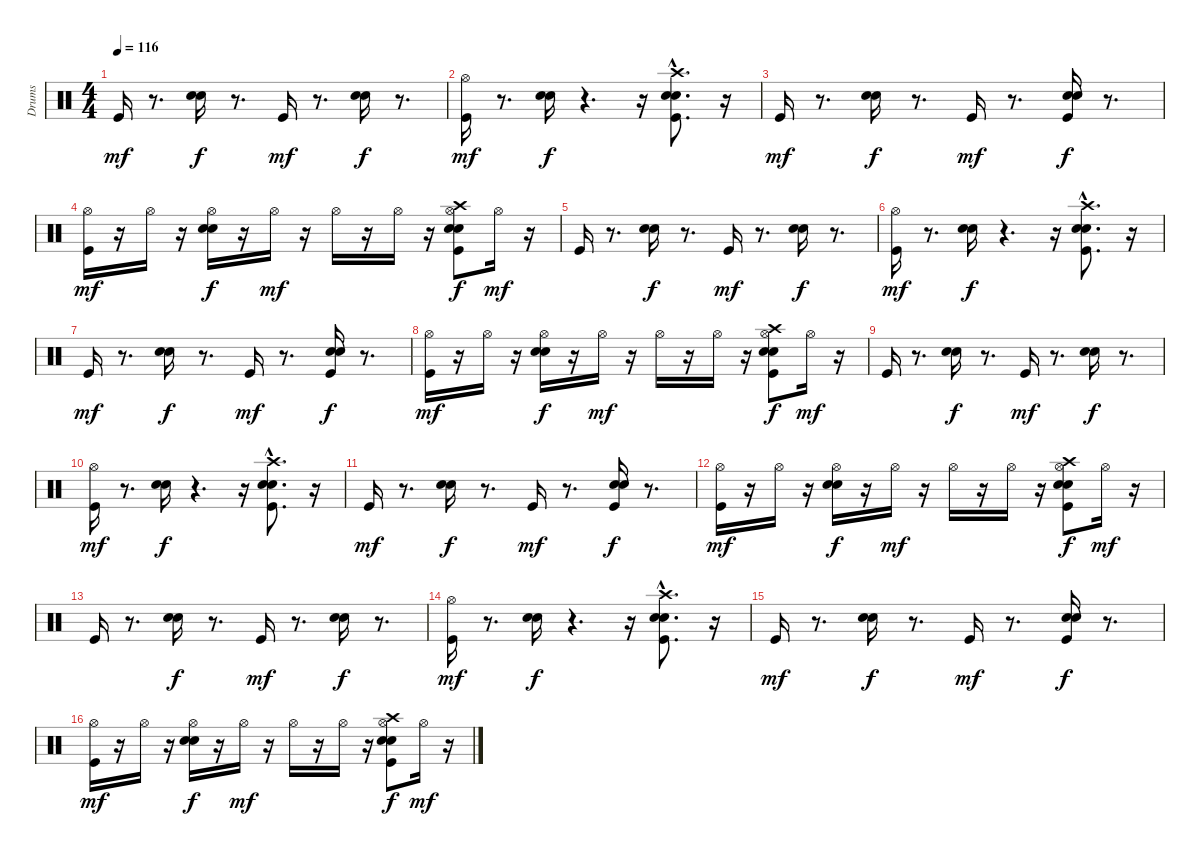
\track ("Drums" "Drums") {instrument percussion}
\staff {score}
\articulation defaults
\ts (4 4)
\tempo 116
\clef neutral
\ks c "Kick (hit)".16{dy mf}
r.8{d} ("Electric Snare (hit)" "Snare (hit) 2").16{dy f} r.8{d} "Kick (hit)".16{dy mf} r.8{d} ("Electric Snare (hit)" "Snare (hit) 2").16{dy f} r.8{d} |
("Hi-Hat (open)" "Kick (hit)").16{dy mf} r.8{d} ("Electric Snare (hit)" "Snare (hit) 2").16{dy f} r.4{d} r.16 ("Crash high (hit)"{hac} "Electric Snare (hit)" "Snare (hit) 2" "Kick (hit)").8{d} r.16 |
"Kick (hit)".16{dy mf} r.8{d} ("Electric Snare (hit)" "Snare (hit) 2").16{dy f} r.8{d} "Kick (hit)".16{dy mf} r.8{d} ("Electric Snare (hit)" "Snare (hit) 2" "Kick (hit)").16{dy f} r.8{d} |
("Hi-Hat (open)" "Kick (hit)").16{dy mf} r.16 "Hi-Hat (open)".16 r.16 ("Hi-Hat (open)" "Electric Snare (hit)" "Snare (hit) 2").16{dy f} r.16 "Hi-Hat (open)".16{dy mf} r.16 "Hi-Hat (open)".16 r.16 "Hi-Hat (open)".16 r.16 ("Hi-Hat (open)" "Crash high (hit)" "Electric Snare (hit)" "Snare (hit) 2" "Kick (hit)").8{dy f} "Hi-Hat (open)".16{dy mf} r.16 |
"Kick (hit)".16 r.8{d} ("Electric Snare (hit)" "Snare (hit) 2").16{dy f} r.8{d} "Kick (hit)".16{dy mf} r.8{d} ("Electric Snare (hit)" "Snare (hit) 2").16{dy f} r.8{d} |
("Hi-Hat (open)" "Kick (hit)").16{dy mf} r.8{d} ("Electric Snare (hit)" "Snare (hit) 2").16{dy f} r.4{d} r.16 ("Crash high (hit)"{hac} "Electric Snare (hit)" "Snare (hit) 2" "Kick (hit)").8{d} r.16 |
"Kick (hit)".16{dy mf} r.8{d} ("Electric Snare (hit)" "Snare (hit) 2").16{dy f} r.8{d} "Kick (hit)".16{dy mf} r.8{d} ("Electric Snare (hit)" "Snare (hit) 2" "Kick (hit)").16{dy f} r.8{d} |
("Hi-Hat (open)" "Kick (hit)").16{dy mf} r.16 "Hi-Hat (open)".16 r.16 ("Hi-Hat (open)" "Electric Snare (hit)" "Snare (hit) 2").16{dy f} r.16 "Hi-Hat (open)".16{dy mf} r.16 "Hi-Hat (open)".16 r.16 "Hi-Hat (open)".16 r.16 ("Hi-Hat (open)" "Crash high (hit)" "Electric Snare (hit)" "Snare (hit) 2" "Kick (hit)").8{dy f} "Hi-Hat (open)".16{dy mf} r.16 |
"Kick (hit)".16 r.8{d} ("Electric Snare (hit)" "Snare (hit) 2").16{dy f} r.8{d} "Kick (hit)".16{dy mf} r.8{d} ("Electric Snare (hit)" "Snare (hit) 2").16{dy f} r.8{d} |
("Hi-Hat (open)" "Kick (hit)").16{dy mf} r.8{d} ("Electric Snare (hit)" "Snare (hit) 2").16{dy f} r.4{d} r.16 ("Crash high (hit)"{hac} "Electric Snare (hit)" "Snare (hit) 2" "Kick (hit)").8{d} r.16 |
"Kick (hit)".16{dy mf} r.8{d} ("Electric Snare (hit)" "Snare (hit) 2").16{dy f} r.8{d} "Kick (hit)".16{dy mf} r.8{d} ("Electric Snare (hit)" "Snare (hit) 2" "Kick (hit)").16{dy f} r.8{d} |
("Hi-Hat (open)" "Kick (hit)").16{dy mf} r.16 "Hi-Hat (open)".16 r.16 ("Hi-Hat (open)" "Electric Snare (hit)" "Snare (hit) 2").16{dy f} r.16 "Hi-Hat (open)".16{dy mf} r.16 "Hi-Hat (open)".16 r.16 "Hi-Hat (open)".16 r.16 ("Hi-Hat (open)" "Crash high (hit)" "Electric Snare (hit)" "Snare (hit) 2" "Kick (hit)").8{dy f} "Hi-Hat (open)".16{dy mf} r.16 |
"Kick (hit)".16 r.8{d} ("Electric Snare (hit)" "Snare (hit) 2").16{dy f} r.8{d} "Kick (hit)".16{dy mf} r.8{d} ("Electric Snare (hit)" "Snare (hit) 2").16{dy f} r.8{d} |
("Hi-Hat (open)" "Kick (hit)").16{dy mf} r.8{d} ("Electric Snare (hit)" "Snare (hit) 2").16{dy f} r.4{d} r.16 ("Crash high (hit)"{hac} "Electric Snare (hit)" "Snare (hit) 2" "Kick (hit)").8{d} r.16 |
"Kick (hit)".16{dy mf} r.8{d} ("Electric Snare (hit)" "Snare (hit) 2").16{dy f} r.8{d} "Kick (hit)".16{dy mf} r.8{d} ("Electric Snare (hit)" "Snare (hit) 2" "Kick (hit)").16{dy f} r.8{d} |
("Hi-Hat (open)" "Kick (hit)").16{dy mf} r.16 "Hi-Hat (open)".16 r.16 ("Hi-Hat (open)" "Electric Snare (hit)" "Snare (hit) 2").16{dy f} r.16 "Hi-Hat (open)".16{dy mf} r.16 "Hi-Hat (open)".16 r.16 "Hi-Hat (open)".16 r.16 ("Hi-Hat (open)" "Crash high (hit)" "Electric Snare (hit)" "Snare (hit) 2" "Kick (hit)").8{dy f} "Hi-Hat (open)".16{dy mf} r.16
